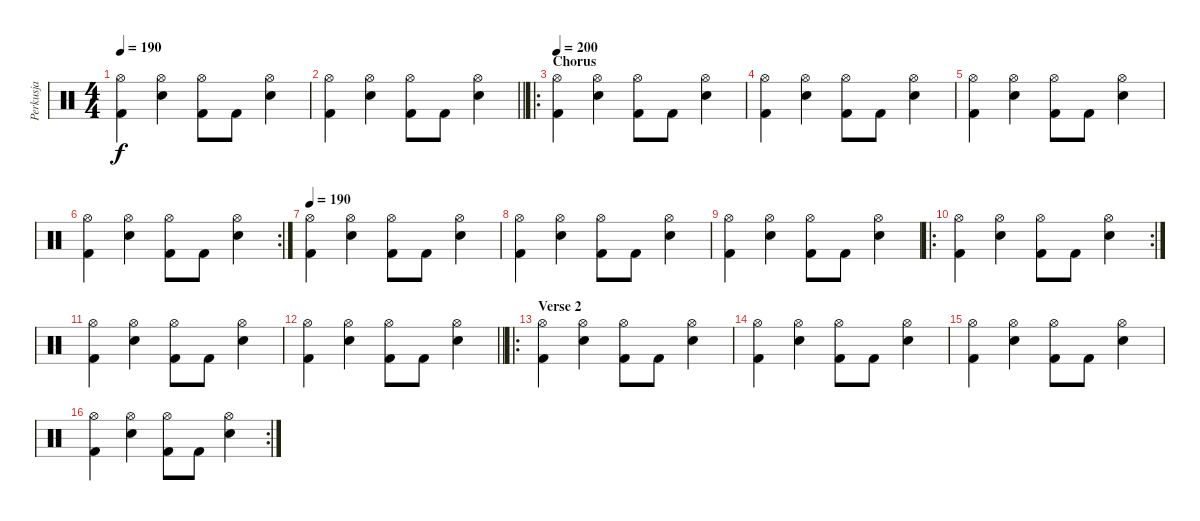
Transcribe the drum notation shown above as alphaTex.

\track ("Perkusja" "Perkusja") {instrument percussion}
\staff {score}
\articulation defaults
\ts (4 4)
\tempo 190
\clef neutral
\ks c
("Kick (hit) 2" "Hi-Hat (open)").4{dy f} ("Electric Snare (hit)" "Hi-Hat (open)").4 ("Kick (hit) 2" "Hi-Hat (open)").8 "Kick (hit) 2".8 ("Electric Snare (hit)" "Hi-Hat (open)").4 |
\barLineRight lightlight
("Kick (hit) 2" "Hi-Hat (open)").4 ("Electric Snare (hit)" "Hi-Hat (open)").4 ("Kick (hit) 2" "Hi-Hat (open)").8 "Kick (hit) 2".8 ("Electric Snare (hit)" "Hi-Hat (open)").4 |
\ro
\section ("" "Chorus")
\tempo 200
("Kick (hit) 2" "Hi-Hat (open)").4 ("Electric Snare (hit)" "Hi-Hat (open)").4 ("Kick (hit) 2" "Hi-Hat (open)").8 "Kick (hit) 2".8 ("Electric Snare (hit)" "Hi-Hat (open)").4 |
("Kick (hit) 2" "Hi-Hat (open)").4 ("Electric Snare (hit)" "Hi-Hat (open)").4 ("Kick (hit) 2" "Hi-Hat (open)").8 "Kick (hit) 2".8 ("Electric Snare (hit)" "Hi-Hat (open)").4 |
("Kick (hit) 2" "Hi-Hat (open)").4 ("Electric Snare (hit)" "Hi-Hat (open)").4 ("Kick (hit) 2" "Hi-Hat (open)").8 "Kick (hit) 2".8 ("Electric Snare (hit)" "Hi-Hat (open)").4 |
\rc 2
("Kick (hit) 2" "Hi-Hat (open)").4 ("Electric Snare (hit)" "Hi-Hat (open)").4 ("Kick (hit) 2" "Hi-Hat (open)").8 "Kick (hit) 2".8 ("Electric Snare (hit)" "Hi-Hat (open)").4 |
\tempo 190
("Kick (hit) 2" "Hi-Hat (open)").4 ("Electric Snare (hit)" "Hi-Hat (open)").4 ("Kick (hit) 2" "Hi-Hat (open)").8 "Kick (hit) 2".8 ("Electric Snare (hit)" "Hi-Hat (open)").4 |
("Kick (hit) 2" "Hi-Hat (open)").4 ("Electric Snare (hit)" "Hi-Hat (open)").4 ("Kick (hit) 2" "Hi-Hat (open)").8 "Kick (hit) 2".8 ("Electric Snare (hit)" "Hi-Hat (open)").4 |
("Kick (hit) 2" "Hi-Hat (open)").4 ("Electric Snare (hit)" "Hi-Hat (open)").4 ("Kick (hit) 2" "Hi-Hat (open)").8 "Kick (hit) 2".8 ("Electric Snare (hit)" "Hi-Hat (open)").4 |
\ro
\rc 2
("Kick (hit) 2" "Hi-Hat (open)").4 ("Electric Snare (hit)" "Hi-Hat (open)").4 ("Kick (hit) 2" "Hi-Hat (open)").8 "Kick (hit) 2".8 ("Electric Snare (hit)" "Hi-Hat (open)").4 |
("Kick (hit) 2" "Hi-Hat (open)").4 ("Electric Snare (hit)" "Hi-Hat (open)").4 ("Kick (hit) 2" "Hi-Hat (open)").8 "Kick (hit) 2".8 ("Electric Snare (hit)" "Hi-Hat (open)").4 |
\barLineRight lightlight
("Kick (hit) 2" "Hi-Hat (open)").4 ("Electric Snare (hit)" "Hi-Hat (open)").4 ("Kick (hit) 2" "Hi-Hat (open)").8 "Kick (hit) 2".8 ("Electric Snare (hit)" "Hi-Hat (open)").4 |
\ro
\section ("" "Verse 2")
("Kick (hit) 2" "Hi-Hat (open)").4 ("Electric Snare (hit)" "Hi-Hat (open)").4 ("Kick (hit) 2" "Hi-Hat (open)").8 "Kick (hit) 2".8 ("Electric Snare (hit)" "Hi-Hat (open)").4 |
("Kick (hit) 2" "Hi-Hat (open)").4 ("Electric Snare (hit)" "Hi-Hat (open)").4 ("Kick (hit) 2" "Hi-Hat (open)").8 "Kick (hit) 2".8 ("Electric Snare (hit)" "Hi-Hat (open)").4 |
("Kick (hit) 2" "Hi-Hat (open)").4 ("Electric Snare (hit)" "Hi-Hat (open)").4 ("Kick (hit) 2" "Hi-Hat (open)").8 "Kick (hit) 2".8 ("Electric Snare (hit)" "Hi-Hat (open)").4 |
\rc 2
("Kick (hit) 2" "Hi-Hat (open)").4 ("Electric Snare (hit)" "Hi-Hat (open)").4 ("Kick (hit) 2" "Hi-Hat (open)").8 "Kick (hit) 2".8 ("Electric Snare (hit)" "Hi-Hat (open)").4
